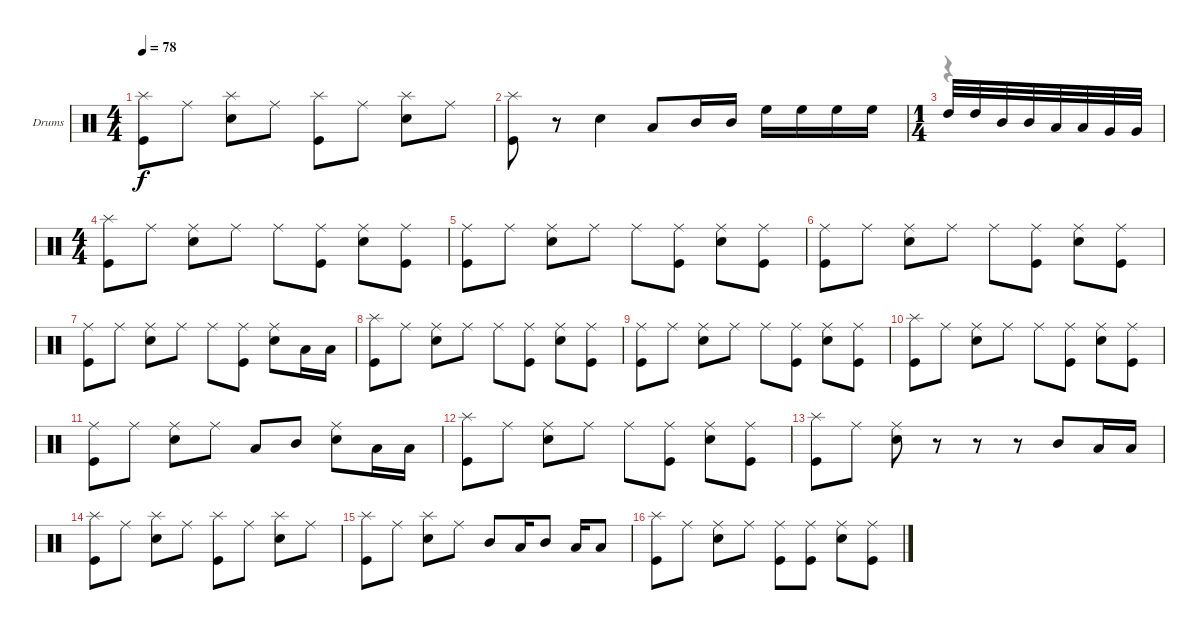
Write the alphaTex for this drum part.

\bracketExtendMode groupsimilarinstruments
\firstSystemTrackNameOrientation horizontal
\otherSystemsTrackNameOrientation horizontal
\track ("Drumkit" "Drums") {instrument percussion}
\staff {score}
\articulation defaults
\voice
\ts (4 4)
\tempo 78
\clef neutral
\ks c
("Splash (hit)" "Kick (hit)").8{dy f} "Ride (middle)".8 ("Splash (hit)" "Snare (hit) 2").8 "Ride (middle)".8 ("Splash (hit)" "Kick (hit)").8 "Ride (middle)".8 ("Splash (hit)" "Snare (hit) 2").8 "Ride (middle)".8 |
("Splash (hit)" "Kick (hit)").8 r.8 "Snare (hit) 2".4 "Low Tom (hit)".8 "Mid Tom (hit)".16 "Mid Tom (hit)".16 "High Floor Tom (hit)".16 "High Floor Tom (hit)".16 "High Floor Tom (hit)".16 "High Floor Tom (hit)".16 |
\ts (1 4)
\beaming (8 2)
"High Tom (hit)".32 "High Tom (hit)".32 "Mid Tom (hit)".32 "Mid Tom (hit)".32 "Low Tom (hit)".32 "Low Tom (hit)".32 "Very Low Tom (hit)".32 "Very Low Tom (hit)".32 |
\ts (4 4)
\beaming (8 2 2 2 2)
("Splash (hit)" "Kick (hit)").8 "Ride (middle)".8 ("Ride (middle)" "Snare (hit) 2").8 "Ride (middle)".8 "Ride (middle)".8 ("Ride (middle)" "Kick (hit)").8 ("Ride (middle)" "Snare (hit) 2").8 ("Ride (middle)" "Kick (hit)").8 |
("Ride (middle)" "Kick (hit)").8 "Ride (middle)".8 ("Ride (middle)" "Snare (hit) 2").8 "Ride (middle)".8 "Ride (middle)".8 ("Ride (middle)" "Kick (hit)").8 ("Ride (middle)" "Snare (hit) 2").8 ("Ride (middle)" "Kick (hit)").8 |
("Ride (middle)" "Kick (hit)").8 "Ride (middle)".8 ("Ride (middle)" "Snare (hit) 2").8 "Ride (middle)".8 "Ride (middle)".8 ("Ride (middle)" "Kick (hit)").8 ("Ride (middle)" "Snare (hit) 2").8 ("Ride (middle)" "Kick (hit)").8 |
("Ride (middle)" "Kick (hit)").8 "Ride (middle)".8 ("Ride (middle)" "Snare (hit) 2").8 "Ride (middle)".8 "Ride (middle)".8 ("Ride (middle)" "Kick (hit)").8 ("Ride (middle)" "Snare (hit) 2").8 "Low Tom (hit)".16 "Low Tom (hit)".16 |
("Splash (hit)" "Kick (hit)").8 "Ride (middle)".8 ("Ride (middle)" "Snare (hit) 2").8 "Ride (middle)".8 "Ride (middle)".8 ("Ride (middle)" "Kick (hit)").8 ("Ride (middle)" "Snare (hit) 2").8 ("Ride (middle)" "Kick (hit)").8 |
("Ride (middle)" "Kick (hit)").8 "Ride (middle)".8 ("Ride (middle)" "Snare (hit) 2").8 "Ride (middle)".8 "Ride (middle)".8 ("Ride (middle)" "Kick (hit)").8 ("Ride (middle)" "Snare (hit) 2").8 ("Ride (middle)" "Kick (hit)").8 |
("Splash (hit)" "Kick (hit)").8 "Ride (middle)".8 ("Ride (middle)" "Snare (hit) 2").8 "Ride (middle)".8 "Ride (middle)".8 ("Ride (middle)" "Kick (hit)").8 ("Ride (middle)" "Snare (hit) 2").8 ("Ride (middle)" "Kick (hit)").8 |
("Ride (middle)" "Kick (hit)").8 "Ride (middle)".8 ("Ride (middle)" "Snare (hit) 2").8 "Ride (middle)".8 "Low Tom (hit)".8 "Mid Tom (hit)".8 ("Ride (middle)" "Snare (hit) 2").8 "Low Tom (hit)".16 "Low Tom (hit)".16 |
("Splash (hit)" "Kick (hit)").8 "Ride (middle)".8 ("Ride (middle)" "Snare (hit) 2").8 "Ride (middle)".8 "Ride (middle)".8 ("Ride (middle)" "Kick (hit)").8 ("Ride (middle)" "Snare (hit) 2").8 ("Ride (middle)" "Kick (hit)").8 |
("Splash (hit)" "Kick (hit)").8 "Ride (middle)".8 ("Ride (middle)" "Snare (hit) 2").8 r.8 r.8 r.8 "Mid Tom (hit)".8 "Low Tom (hit)".16 "Low Tom (hit)".16 |
("Splash (hit)" "Kick (hit)").8 "Ride (middle)".8 ("Splash (hit)" "Snare (hit) 2").8 "Ride (middle)".8 ("Splash (hit)" "Kick (hit)").8 "Ride (middle)".8 ("Splash (hit)" "Snare (hit) 2").8 "Ride (middle)".8 |
("Splash (hit)" "Kick (hit)").8 "Ride (middle)".8 ("Splash (hit)" "Snare (hit) 2").8 "Ride (middle)".8 "Mid Tom (hit)".8 "Low Tom (hit)".16 "Mid Tom (hit)".8 "Low Tom (hit)".16 "Low Tom (hit)".8 |
("Splash (hit)" "Kick (hit)").8 "Ride (middle)".8 ("Ride (middle)" "Snare (hit) 2").8 "Ride (middle)".8 ("Ride (middle)" "Kick (hit)").8 ("Ride (middle)" "Kick (hit)").8 ("Ride (middle)" "Snare (hit) 2").8 ("Ride (middle)" "Kick (hit)").8
\voice
\clef neutral
\ottava regular
\simile none
\ks c
|
|
r.4{dy mf} |
|
|
|
|
|
|
|
|
|
|
|
|
